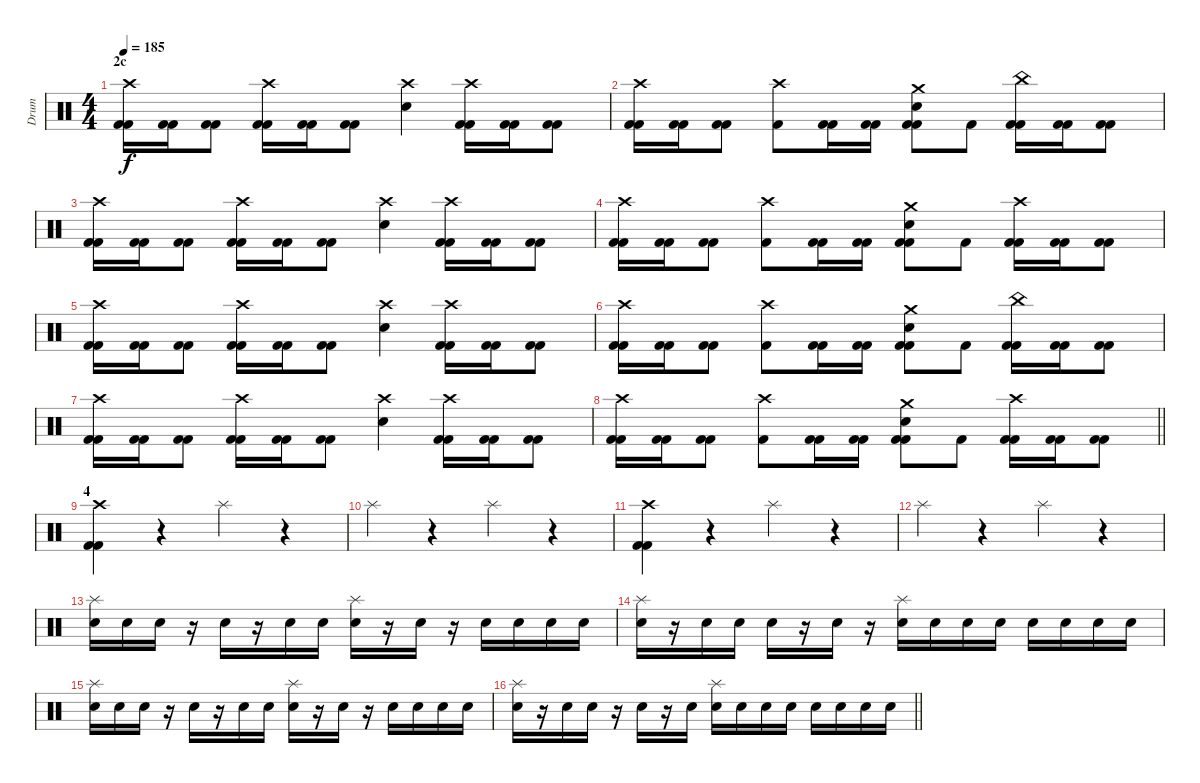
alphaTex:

\track ("Drum" "Drum") {instrument percussion}
\staff {score}
\articulation defaults
\ts (4 4)
\section ("" "2c")
\tempo 185
\clef neutral
\ks c
("Crash high (hit)" "Kick (hit) 2" "Kick (hit) 2").16{dy f} ("Kick (hit) 2" "Kick (hit) 2").16 ("Kick (hit) 2" "Kick (hit) 2").8 ("Crash high (hit)" "Kick (hit) 2" "Kick (hit) 2").16 ("Kick (hit) 2" "Kick (hit) 2").16 ("Kick (hit) 2" "Kick (hit) 2").8 ("Crash high (hit)" "Electric Snare (hit)").4 ("Crash high (hit)" "Kick (hit) 2" "Kick (hit) 2").16 ("Kick (hit) 2" "Kick (hit) 2").16 ("Kick (hit) 2" "Kick (hit) 2").8 |
("Crash high (hit)" "Kick (hit) 2" "Kick (hit) 2").16 ("Kick (hit) 2" "Kick (hit) 2").16 ("Kick (hit) 2" "Kick (hit) 2").8 ("Crash high (hit)" "Kick (hit) 2").8 ("Kick (hit) 2" "Kick (hit) 2").16 ("Kick (hit) 2" "Kick (hit) 2").16 ("Crash medium (hit)" "Electric Snare (hit)" "Kick (hit) 2" "Kick (hit) 2").8 "Kick (hit) 2".8 ("China (hit)" "Kick (hit) 2" "Kick (hit) 2").16 ("Kick (hit) 2" "Kick (hit) 2").16 ("Kick (hit) 2" "Kick (hit) 2").8 |
("Crash high (hit)" "Kick (hit) 2" "Kick (hit) 2").16 ("Kick (hit) 2" "Kick (hit) 2").16 ("Kick (hit) 2" "Kick (hit) 2").8 ("Crash high (hit)" "Kick (hit) 2" "Kick (hit) 2").16 ("Kick (hit) 2" "Kick (hit) 2").16 ("Kick (hit) 2" "Kick (hit) 2").8 ("Crash high (hit)" "Electric Snare (hit)").4 ("Crash high (hit)" "Kick (hit) 2" "Kick (hit) 2").16 ("Kick (hit) 2" "Kick (hit) 2").16 ("Kick (hit) 2" "Kick (hit) 2").8 |
("Crash high (hit)" "Kick (hit) 2" "Kick (hit) 2").16 ("Kick (hit) 2" "Kick (hit) 2").16 ("Kick (hit) 2" "Kick (hit) 2").8 ("Crash high (hit)" "Kick (hit) 2").8 ("Kick (hit) 2" "Kick (hit) 2").16 ("Kick (hit) 2" "Kick (hit) 2").16 ("Crash medium (hit)" "Electric Snare (hit)" "Kick (hit) 2" "Kick (hit) 2").8 "Kick (hit) 2".8 ("Crash high (hit)" "Kick (hit) 2" "Kick (hit) 2").16 ("Kick (hit) 2" "Kick (hit) 2").16 ("Kick (hit) 2" "Kick (hit) 2").8 |
("Crash high (hit)" "Kick (hit) 2" "Kick (hit) 2").16 ("Kick (hit) 2" "Kick (hit) 2").16 ("Kick (hit) 2" "Kick (hit) 2").8 ("Crash high (hit)" "Kick (hit) 2" "Kick (hit) 2").16 ("Kick (hit) 2" "Kick (hit) 2").16 ("Kick (hit) 2" "Kick (hit) 2").8 ("Crash high (hit)" "Electric Snare (hit)").4 ("Crash high (hit)" "Kick (hit) 2" "Kick (hit) 2").16 ("Kick (hit) 2" "Kick (hit) 2").16 ("Kick (hit) 2" "Kick (hit) 2").8 |
("Crash high (hit)" "Kick (hit) 2" "Kick (hit) 2").16 ("Kick (hit) 2" "Kick (hit) 2").16 ("Kick (hit) 2" "Kick (hit) 2").8 ("Crash high (hit)" "Kick (hit) 2").8 ("Kick (hit) 2" "Kick (hit) 2").16 ("Kick (hit) 2" "Kick (hit) 2").16 ("Crash medium (hit)" "Electric Snare (hit)" "Kick (hit) 2" "Kick (hit) 2").8 "Kick (hit) 2".8 ("China (hit)" "Kick (hit) 2" "Kick (hit) 2").16 ("Kick (hit) 2" "Kick (hit) 2").16 ("Kick (hit) 2" "Kick (hit) 2").8 |
("Crash high (hit)" "Kick (hit) 2" "Kick (hit) 2").16 ("Kick (hit) 2" "Kick (hit) 2").16 ("Kick (hit) 2" "Kick (hit) 2").8 ("Crash high (hit)" "Kick (hit) 2" "Kick (hit) 2").16 ("Kick (hit) 2" "Kick (hit) 2").16 ("Kick (hit) 2" "Kick (hit) 2").8 ("Crash high (hit)" "Electric Snare (hit)").4 ("Crash high (hit)" "Kick (hit) 2" "Kick (hit) 2").16 ("Kick (hit) 2" "Kick (hit) 2").16 ("Kick (hit) 2" "Kick (hit) 2").8 |
\barLineRight lightlight
("Crash high (hit)" "Kick (hit) 2" "Kick (hit) 2").16 ("Kick (hit) 2" "Kick (hit) 2").16 ("Kick (hit) 2" "Kick (hit) 2").8 ("Crash high (hit)" "Kick (hit) 2").8 ("Kick (hit) 2" "Kick (hit) 2").16 ("Kick (hit) 2" "Kick (hit) 2").16 ("Crash medium (hit)" "Electric Snare (hit)" "Kick (hit) 2" "Kick (hit) 2").8 "Kick (hit) 2".8 ("Crash high (hit)" "Kick (hit) 2" "Kick (hit) 2").16 ("Kick (hit) 2" "Kick (hit) 2").16 ("Kick (hit) 2" "Kick (hit) 2").8 |
\section ("" "4")
("Crash high (hit)" "Kick (hit) 2" "Kick (hit) 2").4 r.4 "Splash (hit)".4 r.4 |
"Splash (hit)".4 r.4 "Splash (hit)".4 r.4 |
("Crash high (hit)" "Kick (hit) 2" "Kick (hit) 2").4 r.4 "Splash (hit)".4 r.4 |
"Splash (hit)".4 r.4 "Splash (hit)".4 r.4 |
("Splash (hit)" "Electric Snare (hit)").16{volume 2} "Electric Snare (hit)".16 "Electric Snare (hit)".16 r.16 "Electric Snare (hit)".16 r.16 "Electric Snare (hit)".16 "Electric Snare (hit)".16 ("Splash (hit)" "Electric Snare (hit)").16{volume 4} r.16 "Electric Snare (hit)".16 r.16 "Electric Snare (hit)".16 "Electric Snare (hit)".16 "Electric Snare (hit)".16 "Electric Snare (hit)".16 |
("Splash (hit)" "Electric Snare (hit)").16{volume 6} r.16 "Electric Snare (hit)".16 "Electric Snare (hit)".16 "Electric Snare (hit)".16 r.16 "Electric Snare (hit)".16 r.16 ("Splash (hit)" "Electric Snare (hit)").16{volume 8} "Electric Snare (hit)".16 "Electric Snare (hit)".16 "Electric Snare (hit)".16 "Electric Snare (hit)".16 "Electric Snare (hit)".16 "Electric Snare (hit)".16 "Electric Snare (hit)".16 |
("Splash (hit)" "Electric Snare (hit)").16{volume 9} "Electric Snare (hit)".16 "Electric Snare (hit)".16 r.16 "Electric Snare (hit)".16 r.16 "Electric Snare (hit)".16 "Electric Snare (hit)".16 ("Splash (hit)" "Electric Snare (hit)").16{volume 11} r.16 "Electric Snare (hit)".16 r.16 "Electric Snare (hit)".16 "Electric Snare (hit)".16 "Electric Snare (hit)".16 "Electric Snare (hit)".16 |
\barLineRight lightlight
("Splash (hit)" "Electric Snare (hit)").16{volume 14} r.16 "Electric Snare (hit)".16 "Electric Snare (hit)".16 r.16 "Electric Snare (hit)".16 r.16 "Electric Snare (hit)".16 ("Splash (hit)" "Electric Snare (hit)").16 "Electric Snare (hit)".16 "Electric Snare (hit)".16 "Electric Snare (hit)".16 "Electric Snare (hit)".16 "Electric Snare (hit)".16 "Electric Snare (hit)".16 "Electric Snare (hit)".16
